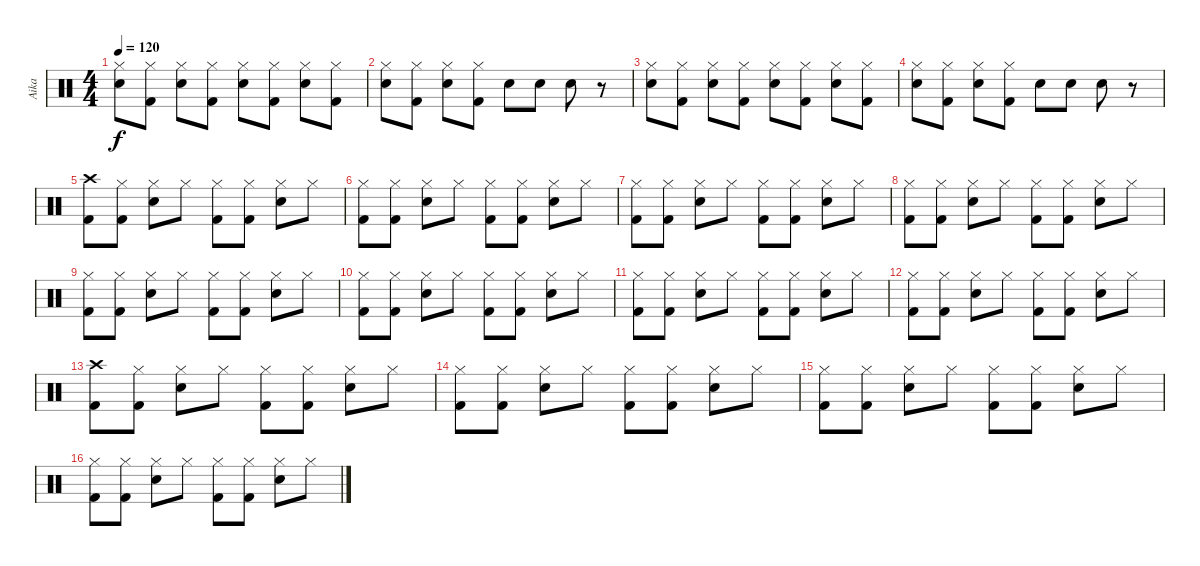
\track ("Aika" "Aika") {instrument percussion}
\staff {score}
\articulation defaults
\ts (4 4)
\tempo 120
\clef neutral
\ks c
("Hi-Hat (closed)" "Snare (hit) 2").8{dy f} ("Hi-Hat (closed)" "Kick (hit) 2").8 ("Hi-Hat (closed)" "Snare (hit) 2").8 ("Hi-Hat (closed)" "Kick (hit) 2").8 ("Hi-Hat (closed)" "Snare (hit) 2").8 ("Hi-Hat (closed)" "Kick (hit) 2").8 ("Hi-Hat (closed)" "Snare (hit) 2").8 ("Hi-Hat (closed)" "Kick (hit) 2").8 |
("Hi-Hat (closed)" "Snare (hit) 2").8 ("Hi-Hat (closed)" "Kick (hit) 2").8 ("Hi-Hat (closed)" "Snare (hit) 2").8 ("Hi-Hat (closed)" "Kick (hit) 2").8 "Snare (hit) 2".8 "Snare (hit) 2".8 "Snare (hit) 2".8 r.8 |
("Hi-Hat (closed)" "Snare (hit) 2").8 ("Hi-Hat (closed)" "Kick (hit) 2").8 ("Hi-Hat (closed)" "Snare (hit) 2").8 ("Hi-Hat (closed)" "Kick (hit) 2").8 ("Hi-Hat (closed)" "Snare (hit) 2").8 ("Hi-Hat (closed)" "Kick (hit) 2").8 ("Hi-Hat (closed)" "Snare (hit) 2").8 ("Hi-Hat (closed)" "Kick (hit) 2").8 |
("Hi-Hat (closed)" "Snare (hit) 2").8 ("Hi-Hat (closed)" "Kick (hit) 2").8 ("Hi-Hat (closed)" "Snare (hit) 2").8 ("Hi-Hat (closed)" "Kick (hit) 2").8 "Snare (hit) 2".8 "Snare (hit) 2".8 "Snare (hit) 2".8 r.8 |
("Crash high (hit)" "Kick (hit) 2").8 ("Hi-Hat (closed)" "Kick (hit) 2").8 ("Hi-Hat (closed)" "Snare (hit) 2").8 "Hi-Hat (closed)".8 ("Hi-Hat (closed)" "Kick (hit) 2").8 ("Hi-Hat (closed)" "Kick (hit) 2").8 ("Hi-Hat (closed)" "Snare (hit) 2").8 "Hi-Hat (closed)".8 |
("Hi-Hat (closed)" "Kick (hit) 2").8 ("Hi-Hat (closed)" "Kick (hit) 2").8 ("Hi-Hat (closed)" "Snare (hit) 2").8 "Hi-Hat (closed)".8 ("Hi-Hat (closed)" "Kick (hit) 2").8 ("Hi-Hat (closed)" "Kick (hit) 2").8 ("Hi-Hat (closed)" "Snare (hit) 2").8 "Hi-Hat (closed)".8 |
("Hi-Hat (closed)" "Kick (hit) 2").8 ("Hi-Hat (closed)" "Kick (hit) 2").8 ("Hi-Hat (closed)" "Snare (hit) 2").8 "Hi-Hat (closed)".8 ("Hi-Hat (closed)" "Kick (hit) 2").8 ("Hi-Hat (closed)" "Kick (hit) 2").8 ("Hi-Hat (closed)" "Snare (hit) 2").8 "Hi-Hat (closed)".8 |
("Hi-Hat (closed)" "Kick (hit) 2").8 ("Hi-Hat (closed)" "Kick (hit) 2").8 ("Hi-Hat (closed)" "Snare (hit) 2").8 "Hi-Hat (closed)".8 ("Hi-Hat (closed)" "Kick (hit) 2").8 ("Hi-Hat (closed)" "Kick (hit) 2").8 ("Hi-Hat (closed)" "Snare (hit) 2").8 "Hi-Hat (closed)".8 |
("Hi-Hat (closed)" "Kick (hit) 2").8 ("Hi-Hat (closed)" "Kick (hit) 2").8 ("Hi-Hat (closed)" "Snare (hit) 2").8 "Hi-Hat (closed)".8 ("Hi-Hat (closed)" "Kick (hit) 2").8 ("Hi-Hat (closed)" "Kick (hit) 2").8 ("Hi-Hat (closed)" "Snare (hit) 2").8 "Hi-Hat (closed)".8 |
("Hi-Hat (closed)" "Kick (hit) 2").8 ("Hi-Hat (closed)" "Kick (hit) 2").8 ("Hi-Hat (closed)" "Snare (hit) 2").8 "Hi-Hat (closed)".8 ("Hi-Hat (closed)" "Kick (hit) 2").8 ("Hi-Hat (closed)" "Kick (hit) 2").8 ("Hi-Hat (closed)" "Snare (hit) 2").8 "Hi-Hat (closed)".8 |
("Hi-Hat (closed)" "Kick (hit) 2").8 ("Hi-Hat (closed)" "Kick (hit) 2").8 ("Hi-Hat (closed)" "Snare (hit) 2").8 "Hi-Hat (closed)".8 ("Hi-Hat (closed)" "Kick (hit) 2").8 ("Hi-Hat (closed)" "Kick (hit) 2").8 ("Hi-Hat (closed)" "Snare (hit) 2").8 "Hi-Hat (closed)".8 |
("Hi-Hat (closed)" "Kick (hit) 2").8 ("Hi-Hat (closed)" "Kick (hit) 2").8 ("Hi-Hat (closed)" "Snare (hit) 2").8 "Hi-Hat (closed)".8 ("Hi-Hat (closed)" "Kick (hit) 2").8 ("Hi-Hat (closed)" "Kick (hit) 2").8 ("Hi-Hat (closed)" "Snare (hit) 2").8 "Hi-Hat (closed)".8 |
("Crash high (hit)" "Kick (hit) 2").8 ("Hi-Hat (closed)" "Kick (hit) 2").8 ("Hi-Hat (closed)" "Snare (hit) 2").8 "Hi-Hat (closed)".8 ("Hi-Hat (closed)" "Kick (hit) 2").8 ("Hi-Hat (closed)" "Kick (hit) 2").8 ("Hi-Hat (closed)" "Snare (hit) 2").8 "Hi-Hat (closed)".8 |
("Hi-Hat (closed)" "Kick (hit) 2").8 ("Hi-Hat (closed)" "Kick (hit) 2").8 ("Hi-Hat (closed)" "Snare (hit) 2").8 "Hi-Hat (closed)".8 ("Hi-Hat (closed)" "Kick (hit) 2").8 ("Hi-Hat (closed)" "Kick (hit) 2").8 ("Hi-Hat (closed)" "Snare (hit) 2").8 "Hi-Hat (closed)".8 |
("Hi-Hat (closed)" "Kick (hit) 2").8 ("Hi-Hat (closed)" "Kick (hit) 2").8 ("Hi-Hat (closed)" "Snare (hit) 2").8 "Hi-Hat (closed)".8 ("Hi-Hat (closed)" "Kick (hit) 2").8 ("Hi-Hat (closed)" "Kick (hit) 2").8 ("Hi-Hat (closed)" "Snare (hit) 2").8 "Hi-Hat (closed)".8 |
("Hi-Hat (closed)" "Kick (hit) 2").8 ("Hi-Hat (closed)" "Kick (hit) 2").8 ("Hi-Hat (closed)" "Snare (hit) 2").8 "Hi-Hat (closed)".8 ("Hi-Hat (closed)" "Kick (hit) 2").8 ("Hi-Hat (closed)" "Kick (hit) 2").8 ("Hi-Hat (closed)" "Snare (hit) 2").8 "Hi-Hat (closed)".8
